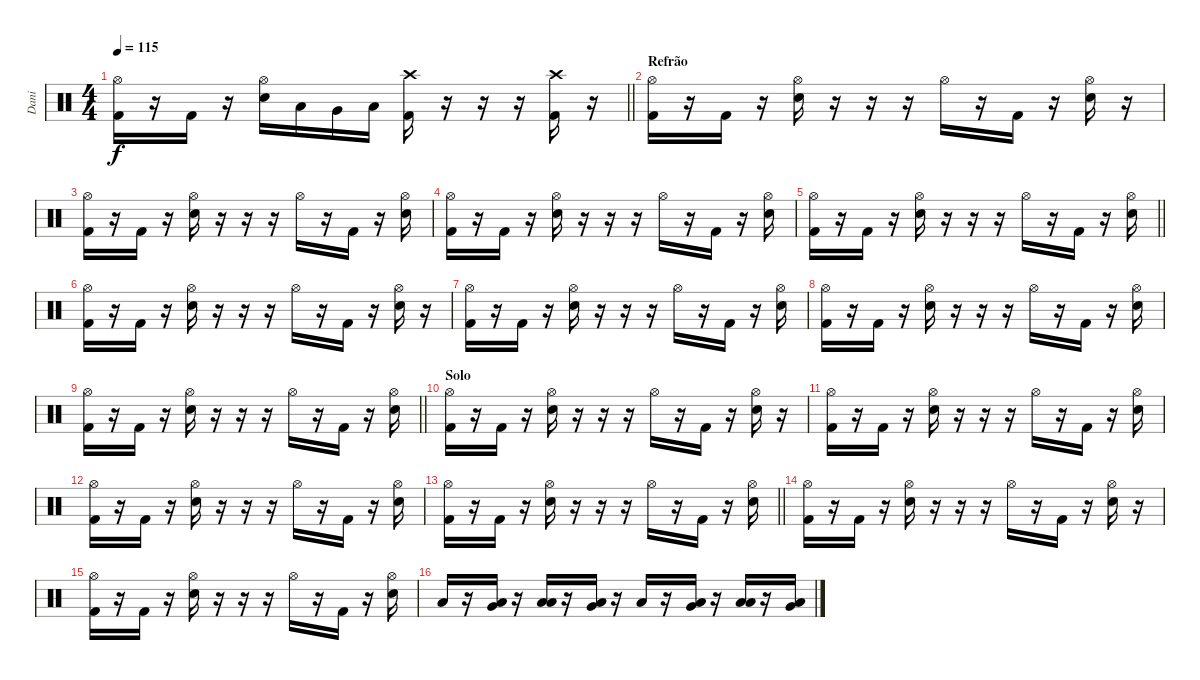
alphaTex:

\track ("Dani" "Dani") {instrument percussion}
\staff {score}
\articulation defaults
\ts (4 4)
\tempo 115
\clef neutral
\barLineRight lightlight
\ks c
("Hi-Hat (open)" "Kick (hit) 2").16{dy f} r.16 "Kick (hit) 2".16 r.16 ("Hi-Hat (open)" "Snare (hit) 2").16 "Low Floor Tom (hit)".16 "Very Low Tom (hit)".16 "Low Tom (hit)".16 ("Crash high (hit)" "Kick (hit) 2").16 r.16 r.16 r.16 ("Crash high (hit)" "Kick (hit) 2").16 r.16 |
\section ("" "Refrão")
("Hi-Hat (open)" "Kick (hit) 2").16 r.16 "Kick (hit) 2".16 r.16 ("Hi-Hat (open)" "Snare (hit) 2").16 r.16 r.16 r.16 "Hi-Hat (open)".16 r.16 "Kick (hit) 2".16 r.16 ("Hi-Hat (open)" "Snare (hit) 2").16 r.16 |
("Hi-Hat (open)" "Kick (hit) 2").16 r.16 "Kick (hit) 2".16 r.16 ("Hi-Hat (open)" "Snare (hit) 2").16 r.16 r.16 r.16 "Hi-Hat (open)".16 r.16 "Kick (hit) 2".16 r.16 ("Hi-Hat (open)" "Snare (hit) 2").16 |
("Hi-Hat (open)" "Kick (hit) 2").16 r.16 "Kick (hit) 2".16 r.16 ("Hi-Hat (open)" "Snare (hit) 2").16 r.16 r.16 r.16 "Hi-Hat (open)".16 r.16 "Kick (hit) 2".16 r.16 ("Hi-Hat (open)" "Snare (hit) 2").16 |
\barLineRight lightlight
("Hi-Hat (open)" "Kick (hit) 2").16 r.16 "Kick (hit) 2".16 r.16 ("Hi-Hat (open)" "Snare (hit) 2").16 r.16 r.16 r.16 "Hi-Hat (open)".16 r.16 "Kick (hit) 2".16 r.16 ("Hi-Hat (open)" "Snare (hit) 2").16 |
("Hi-Hat (open)" "Kick (hit) 2").16 r.16 "Kick (hit) 2".16 r.16 ("Hi-Hat (open)" "Snare (hit) 2").16 r.16 r.16 r.16 "Hi-Hat (open)".16 r.16 "Kick (hit) 2".16 r.16 ("Hi-Hat (open)" "Snare (hit) 2").16 r.16 |
("Hi-Hat (open)" "Kick (hit) 2").16 r.16 "Kick (hit) 2".16 r.16 ("Hi-Hat (open)" "Snare (hit) 2").16 r.16 r.16 r.16 "Hi-Hat (open)".16 r.16 "Kick (hit) 2".16 r.16 ("Hi-Hat (open)" "Snare (hit) 2").16 |
("Hi-Hat (open)" "Kick (hit) 2").16 r.16 "Kick (hit) 2".16 r.16 ("Hi-Hat (open)" "Snare (hit) 2").16 r.16 r.16 r.16 "Hi-Hat (open)".16 r.16 "Kick (hit) 2".16 r.16 ("Hi-Hat (open)" "Snare (hit) 2").16 |
\barLineRight lightlight
("Hi-Hat (open)" "Kick (hit) 2").16 r.16 "Kick (hit) 2".16 r.16 ("Hi-Hat (open)" "Snare (hit) 2").16 r.16 r.16 r.16 "Hi-Hat (open)".16 r.16 "Kick (hit) 2".16 r.16 ("Hi-Hat (open)" "Snare (hit) 2").16 |
\section ("" "Solo")
("Hi-Hat (open)" "Kick (hit) 2").16 r.16 "Kick (hit) 2".16 r.16 ("Hi-Hat (open)" "Snare (hit) 2").16 r.16 r.16 r.16 "Hi-Hat (open)".16 r.16 "Kick (hit) 2".16 r.16 ("Hi-Hat (open)" "Snare (hit) 2").16 r.16 |
("Hi-Hat (open)" "Kick (hit) 2").16 r.16 "Kick (hit) 2".16 r.16 ("Hi-Hat (open)" "Snare (hit) 2").16 r.16 r.16 r.16 "Hi-Hat (open)".16 r.16 "Kick (hit) 2".16 r.16 ("Hi-Hat (open)" "Snare (hit) 2").16 |
("Hi-Hat (open)" "Kick (hit) 2").16 r.16 "Kick (hit) 2".16 r.16 ("Hi-Hat (open)" "Snare (hit) 2").16 r.16 r.16 r.16 "Hi-Hat (open)".16 r.16 "Kick (hit) 2".16 r.16 ("Hi-Hat (open)" "Snare (hit) 2").16 |
\barLineRight lightlight
("Hi-Hat (open)" "Kick (hit) 2").16 r.16 "Kick (hit) 2".16 r.16 ("Hi-Hat (open)" "Snare (hit) 2").16 r.16 r.16 r.16 "Hi-Hat (open)".16 r.16 "Kick (hit) 2".16 r.16 ("Hi-Hat (open)" "Snare (hit) 2").16 |
("Hi-Hat (open)" "Kick (hit) 2").16 r.16 "Kick (hit) 2".16 r.16 ("Hi-Hat (open)" "Snare (hit) 2").16 r.16 r.16 r.16 "Hi-Hat (open)".16 r.16 "Kick (hit) 2".16 r.16 ("Hi-Hat (open)" "Snare (hit) 2").16 r.16 |
("Hi-Hat (open)" "Kick (hit) 2").16 r.16 "Kick (hit) 2".16 r.16 ("Hi-Hat (open)" "Snare (hit) 2").16 r.16 r.16 r.16 "Hi-Hat (open)".16 r.16 "Kick (hit) 2".16 r.16 ("Hi-Hat (open)" "Snare (hit) 2").16 |
"Low Floor Tom (hit)".16 r.16 ("Very Low Tom (hit)" "Low Floor Tom (hit)").16 r.16 ("Low Tom (hit)" "Low Floor Tom (hit)").16 r.16 ("Very Low Tom (hit)" "Low Floor Tom (hit)").16 r.16 "Low Floor Tom (hit)".16 r.16 ("Very Low Tom (hit)" "Low Floor Tom (hit)").16 r.16 ("Low Tom (hit)" "Low Floor Tom (hit)").16 r.16 ("Very Low Tom (hit)" "Low Floor Tom (hit)").16
